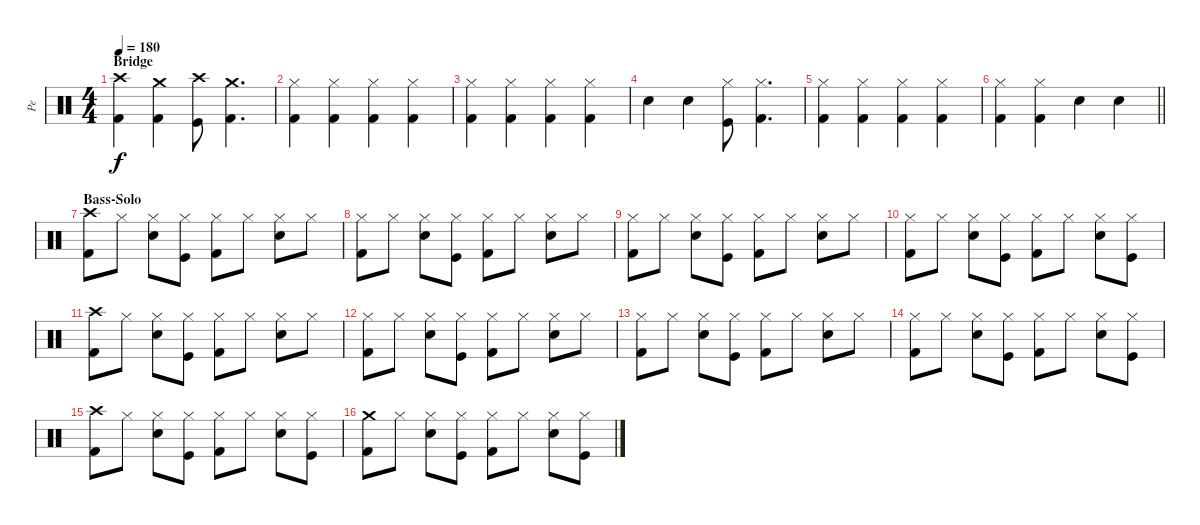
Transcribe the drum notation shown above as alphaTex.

\track ("Pe" "Pe") {instrument percussion}
\staff {score}
\articulation defaults
\ts (4 4)
\section ("" "Bridge")
\tempo 180
\clef neutral
\ks c
("Kick (hit) 2" "Crash high (hit)").4{dy f} ("Kick (hit) 2" "Crash medium (hit)").4 ("Kick (hit)" "Crash high (hit)").8 ("Kick (hit) 2" "Crash medium (hit)").4{d} |
("Kick (hit) 2" "Hi-Hat (closed)").4 ("Kick (hit) 2" "Hi-Hat (closed)").4 ("Kick (hit) 2" "Hi-Hat (closed)").4 ("Kick (hit) 2" "Hi-Hat (closed)").4 |
("Kick (hit) 2" "Hi-Hat (closed)").4 ("Kick (hit) 2" "Hi-Hat (closed)").4 ("Kick (hit) 2" "Hi-Hat (closed)").4 ("Kick (hit) 2" "Hi-Hat (closed)").4 |
"Electric Snare (hit)".4 "Electric Snare (hit)".4 ("Kick (hit)" "Hi-Hat (closed)").8 ("Kick (hit) 2" "Hi-Hat (closed)").4{d} |
("Kick (hit) 2" "Hi-Hat (closed)").4 ("Kick (hit) 2" "Hi-Hat (closed)").4 ("Kick (hit) 2" "Hi-Hat (closed)").4 ("Kick (hit) 2" "Hi-Hat (closed)").4 |
\barLineRight lightlight
("Kick (hit) 2" "Hi-Hat (closed)").4 ("Kick (hit) 2" "Hi-Hat (closed)").4 "Electric Snare (hit)".4 "Electric Snare (hit)".4 |
\section ("" "Bass-Solo")
("Kick (hit) 2" "Crash high (hit)").8 "Hi-Hat (closed)".8 ("Electric Snare (hit)" "Hi-Hat (closed)").8 ("Kick (hit)" "Hi-Hat (closed)").8 ("Kick (hit) 2" "Hi-Hat (closed)").8 "Hi-Hat (closed)".8 ("Electric Snare (hit)" "Hi-Hat (closed)").8 "Hi-Hat (closed)".8 |
("Kick (hit) 2" "Hi-Hat (closed)").8 "Hi-Hat (closed)".8 ("Electric Snare (hit)" "Hi-Hat (closed)").8 ("Kick (hit)" "Hi-Hat (closed)").8 ("Kick (hit) 2" "Hi-Hat (closed)").8 "Hi-Hat (closed)".8 ("Electric Snare (hit)" "Hi-Hat (closed)").8 "Hi-Hat (closed)".8 |
("Kick (hit) 2" "Hi-Hat (closed)").8 "Hi-Hat (closed)".8 ("Electric Snare (hit)" "Hi-Hat (closed)").8 ("Kick (hit)" "Hi-Hat (closed)").8 ("Kick (hit) 2" "Hi-Hat (closed)").8 "Hi-Hat (closed)".8 ("Electric Snare (hit)" "Hi-Hat (closed)").8 "Hi-Hat (closed)".8 |
("Kick (hit) 2" "Hi-Hat (closed)").8 "Hi-Hat (closed)".8 ("Electric Snare (hit)" "Hi-Hat (closed)").8 ("Kick (hit)" "Hi-Hat (closed)").8 ("Kick (hit) 2" "Hi-Hat (closed)").8 "Hi-Hat (closed)".8 ("Electric Snare (hit)" "Hi-Hat (closed)").8 ("Kick (hit)" "Hi-Hat (closed)").8 |
("Kick (hit) 2" "Crash high (hit)").8 "Hi-Hat (closed)".8 ("Electric Snare (hit)" "Hi-Hat (closed)").8 ("Kick (hit)" "Hi-Hat (closed)").8 ("Kick (hit) 2" "Hi-Hat (closed)").8 "Hi-Hat (closed)".8 ("Electric Snare (hit)" "Hi-Hat (closed)").8 "Hi-Hat (closed)".8 |
("Kick (hit) 2" "Hi-Hat (closed)").8 "Hi-Hat (closed)".8 ("Electric Snare (hit)" "Hi-Hat (closed)").8 ("Kick (hit)" "Hi-Hat (closed)").8 ("Kick (hit) 2" "Hi-Hat (closed)").8 "Hi-Hat (closed)".8 ("Electric Snare (hit)" "Hi-Hat (closed)").8 "Hi-Hat (closed)".8 |
("Kick (hit) 2" "Hi-Hat (closed)").8 "Hi-Hat (closed)".8 ("Electric Snare (hit)" "Hi-Hat (closed)").8 ("Kick (hit)" "Hi-Hat (closed)").8 ("Kick (hit) 2" "Hi-Hat (closed)").8 "Hi-Hat (closed)".8 ("Electric Snare (hit)" "Hi-Hat (closed)").8 "Hi-Hat (closed)".8 |
("Kick (hit) 2" "Hi-Hat (closed)").8 "Hi-Hat (closed)".8 ("Electric Snare (hit)" "Hi-Hat (closed)").8 ("Kick (hit)" "Hi-Hat (closed)").8 ("Kick (hit) 2" "Hi-Hat (closed)").8 "Hi-Hat (closed)".8 ("Electric Snare (hit)" "Hi-Hat (closed)").8 ("Kick (hit)" "Hi-Hat (closed)").8 |
("Kick (hit) 2" "Crash high (hit)").8 "Hi-Hat (closed)".8 ("Electric Snare (hit)" "Hi-Hat (closed)").8 ("Kick (hit)" "Hi-Hat (closed)").8 ("Kick (hit) 2" "Hi-Hat (closed)").8 "Hi-Hat (closed)".8 ("Electric Snare (hit)" "Hi-Hat (closed)").8 ("Kick (hit)" "Hi-Hat (closed)").8 |
("Kick (hit) 2" "Crash medium (hit)").8 "Hi-Hat (closed)".8 ("Electric Snare (hit)" "Hi-Hat (closed)").8 ("Kick (hit)" "Hi-Hat (closed)").8 ("Kick (hit) 2" "Hi-Hat (closed)").8 "Hi-Hat (closed)".8 ("Electric Snare (hit)" "Hi-Hat (closed)").8 ("Kick (hit)" "Hi-Hat (closed)").8
